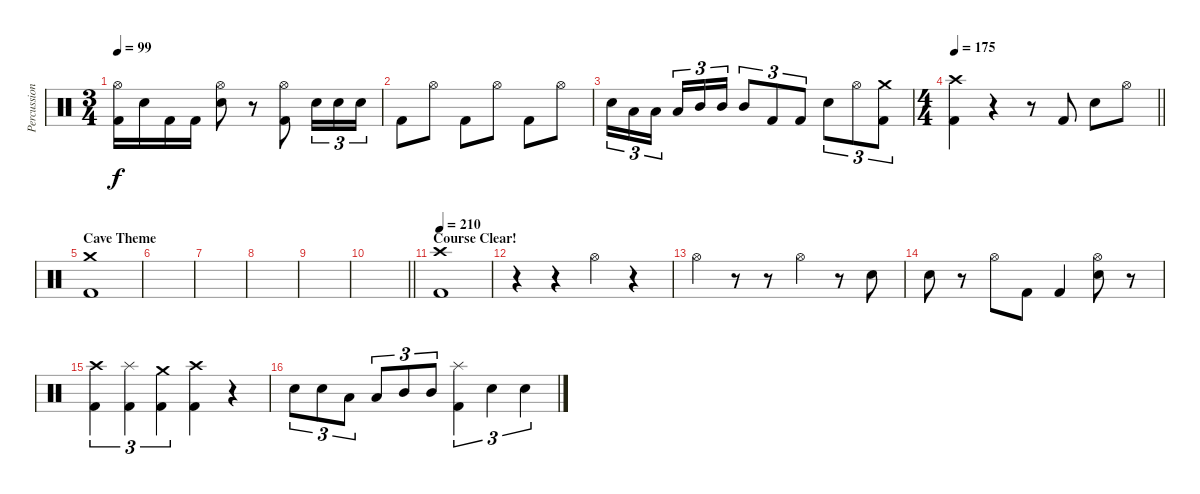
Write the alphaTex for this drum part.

\track ("Percussion" "Percussion") {instrument percussion}
\staff {score}
\articulation defaults
\ts (3 4)
\tempo 99
\clef neutral
\ks c
("Hi-Hat (open)" "Kick (hit) 2").16{dy f} "Electric Snare (hit)".16 "Kick (hit) 2".16 "Kick (hit) 2".16 ("Hi-Hat (open)" "Electric Snare (hit)").8 r.8 ("Hi-Hat (open)" "Kick (hit) 2").8 "Electric Snare (hit)".16{tu (3 2)} "Electric Snare (hit)".16{tu (3 2)} "Electric Snare (hit)".16{tu (3 2)} |
"Kick (hit) 2".8 "Hi-Hat (open)".8 "Kick (hit) 2".8 "Hi-Hat (open)".8 "Kick (hit) 2".8 "Hi-Hat (open)".8 |
"Electric Snare (hit)".16{tu (3 2)} "Low Tom (hit)".16{tu (3 2)} "Low Tom (hit)".16{tu (3 2) beam splitsecondary} "Low Tom (hit)".16{tu (3 2)} "Mid Tom (hit)".16{tu (3 2)} "Mid Tom (hit)".16{tu (3 2)} "Mid Tom (hit)".8{tu (3 2)} "Kick (hit) 2".8{tu (3 2)} "Kick (hit) 2".8{tu (3 2)} "Electric Snare (hit)".8{tu (3 2)} "Hi-Hat (open)".8{tu (3 2)} ("Crash medium (hit)" "Kick (hit) 2").8{tu (3 2)} |
\ts (4 4)
\tempo 175
\barLineRight lightlight
("Crash high (hit)" "Kick (hit) 2").4 r.4 r.8 "Kick (hit) 2".8 "Electric Snare (hit)".8 "Hi-Hat (open)".8 |
\section ("" "Cave Theme")
("Crash medium (hit)" "Kick (hit) 2").1 |
|
|
|
|
\barLineRight lightlight
|
\section ("" "Course Clear!")
\tempo 210
("Crash high (hit)" "Kick (hit) 2").1 |
r.4 r.4 "Hi-Hat (open)".4 r.4 |
"Hi-Hat (open)".4 r.8 r.8 "Hi-Hat (open)".4 r.8 "Electric Snare (hit)".8 |
"Electric Snare (hit)".8 r.8 "Hi-Hat (open)".8 "Kick (hit) 2".8 "Kick (hit) 2".4 ("Hi-Hat (open)" "Electric Snare (hit)").8 r.8 |
("Crash high (hit)" "Kick (hit) 2").4{tu (3 2)} ("Splash (hit)" "Kick (hit) 2").4{tu (3 2)} ("Crash medium (hit)" "Kick (hit) 2").4{tu (3 2)} ("Crash high (hit)" "Kick (hit) 2").4 r.4 |
"Electric Snare (hit)".8{tu (3 2)} "Electric Snare (hit)".8{tu (3 2)} "Low Tom (hit)".8{tu (3 2)} "Low Tom (hit)".8{tu (3 2)} "Mid Tom (hit)".8{tu (3 2)} "Mid Tom (hit)".8{tu (3 2)} ("Splash (hit)" "Kick (hit) 2").4{tu (3 2)} "Electric Snare (hit)".4{tu (3 2)} "Electric Snare (hit)".4{tu (3 2)}
